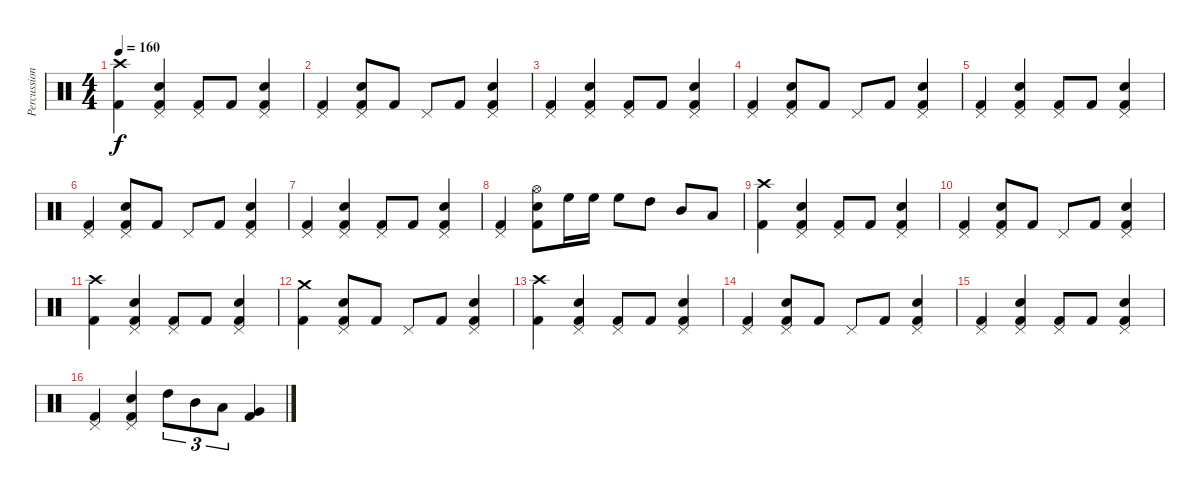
\track ("Percussion" "Percussion") {instrument percussion}
\staff {score}
\articulation defaults
\ts (4 4)
\tempo 160
\clef neutral
\ks c
("Crash high (hit)" "Kick (hit) 2").4{dy f} ("Pedal Hi-Hat (hit)" "Snare (hit) 2" "Kick (hit) 2").4 ("Pedal Hi-Hat (hit)" "Kick (hit) 2").8 "Kick (hit) 2".8 ("Pedal Hi-Hat (hit)" "Snare (hit) 2" "Kick (hit) 2").4 |
("Pedal Hi-Hat (hit)" "Kick (hit) 2").4 ("Pedal Hi-Hat (hit)" "Snare (hit) 2" "Kick (hit) 2").8 "Kick (hit) 2".8 "Pedal Hi-Hat (hit)".8 "Kick (hit) 2".8 ("Pedal Hi-Hat (hit)" "Snare (hit) 2" "Kick (hit) 2").4 |
("Pedal Hi-Hat (hit)" "Kick (hit) 2").4 ("Pedal Hi-Hat (hit)" "Snare (hit) 2" "Kick (hit) 2").4 ("Pedal Hi-Hat (hit)" "Kick (hit) 2").8 "Kick (hit) 2".8 ("Pedal Hi-Hat (hit)" "Snare (hit) 2" "Kick (hit) 2").4 |
("Pedal Hi-Hat (hit)" "Kick (hit) 2").4 ("Pedal Hi-Hat (hit)" "Snare (hit) 2" "Kick (hit) 2").8 "Kick (hit) 2".8 "Pedal Hi-Hat (hit)".8 "Kick (hit) 2".8 ("Pedal Hi-Hat (hit)" "Snare (hit) 2" "Kick (hit) 2").4 |
("Pedal Hi-Hat (hit)" "Kick (hit) 2").4 ("Pedal Hi-Hat (hit)" "Snare (hit) 2" "Kick (hit) 2").4 ("Pedal Hi-Hat (hit)" "Kick (hit) 2").8 "Kick (hit) 2".8 ("Pedal Hi-Hat (hit)" "Snare (hit) 2" "Kick (hit) 2").4 |
("Pedal Hi-Hat (hit)" "Kick (hit) 2").4 ("Pedal Hi-Hat (hit)" "Snare (hit) 2" "Kick (hit) 2").8 "Kick (hit) 2".8 "Pedal Hi-Hat (hit)".8 "Kick (hit) 2".8 ("Pedal Hi-Hat (hit)" "Snare (hit) 2" "Kick (hit) 2").4 |
("Pedal Hi-Hat (hit)" "Kick (hit) 2").4 ("Pedal Hi-Hat (hit)" "Snare (hit) 2" "Kick (hit) 2").4 ("Pedal Hi-Hat (hit)" "Kick (hit) 2").8 "Kick (hit) 2".8 ("Pedal Hi-Hat (hit)" "Snare (hit) 2" "Kick (hit) 2").4 |
("Pedal Hi-Hat (hit)" "Kick (hit) 2").4 ("Hi-Hat (open)" "Snare (hit) 2" "Kick (hit) 2").8 "High Floor Tom (hit)".16 "High Floor Tom (hit)".16 "High Floor Tom (hit)".8 "High Tom (hit)".8 "Mid Tom (hit)".8 "Low Tom (hit)".8 |
("Crash high (hit)" "Kick (hit) 2").4 ("Pedal Hi-Hat (hit)" "Snare (hit) 2" "Kick (hit) 2").4 ("Pedal Hi-Hat (hit)" "Kick (hit) 2").8 "Kick (hit) 2".8 ("Pedal Hi-Hat (hit)" "Snare (hit) 2" "Kick (hit) 2").4 |
("Pedal Hi-Hat (hit)" "Kick (hit) 2").4 ("Pedal Hi-Hat (hit)" "Snare (hit) 2" "Kick (hit) 2").8 "Kick (hit) 2".8 "Pedal Hi-Hat (hit)".8 "Kick (hit) 2".8 ("Pedal Hi-Hat (hit)" "Snare (hit) 2" "Kick (hit) 2").4 |
("Crash high (hit)" "Kick (hit) 2").4 ("Pedal Hi-Hat (hit)" "Snare (hit) 2" "Kick (hit) 2").4 ("Pedal Hi-Hat (hit)" "Kick (hit) 2").8 "Kick (hit) 2".8 ("Pedal Hi-Hat (hit)" "Snare (hit) 2" "Kick (hit) 2").4 |
("Crash medium (hit)" "Kick (hit) 2").4 ("Pedal Hi-Hat (hit)" "Snare (hit) 2" "Kick (hit) 2").8 "Kick (hit) 2".8 "Pedal Hi-Hat (hit)".8 "Kick (hit) 2".8 ("Pedal Hi-Hat (hit)" "Snare (hit) 2" "Kick (hit) 2").4 |
("Crash high (hit)" "Kick (hit) 2").4 ("Pedal Hi-Hat (hit)" "Snare (hit) 2" "Kick (hit) 2").4 ("Pedal Hi-Hat (hit)" "Kick (hit) 2").8 "Kick (hit) 2".8 ("Pedal Hi-Hat (hit)" "Snare (hit) 2" "Kick (hit) 2").4 |
("Pedal Hi-Hat (hit)" "Kick (hit) 2").4 ("Pedal Hi-Hat (hit)" "Snare (hit) 2" "Kick (hit) 2").8 "Kick (hit) 2".8 "Pedal Hi-Hat (hit)".8 "Kick (hit) 2".8 ("Pedal Hi-Hat (hit)" "Snare (hit) 2" "Kick (hit) 2").4 |
("Pedal Hi-Hat (hit)" "Kick (hit) 2").4 ("Pedal Hi-Hat (hit)" "Snare (hit) 2" "Kick (hit) 2").4 ("Pedal Hi-Hat (hit)" "Kick (hit) 2").8 "Kick (hit) 2".8 ("Pedal Hi-Hat (hit)" "Snare (hit) 2" "Kick (hit) 2").4 |
("Pedal Hi-Hat (hit)" "Kick (hit) 2").4 ("Pedal Hi-Hat (hit)" "Snare (hit) 2" "Kick (hit) 2").4 "High Tom (hit)".8{tu (3 2)} "Mid Tom (hit)".8{tu (3 2)} "Low Tom (hit)".8{tu (3 2)} ("Very Low Tom (hit)" "Kick (hit) 2").4
